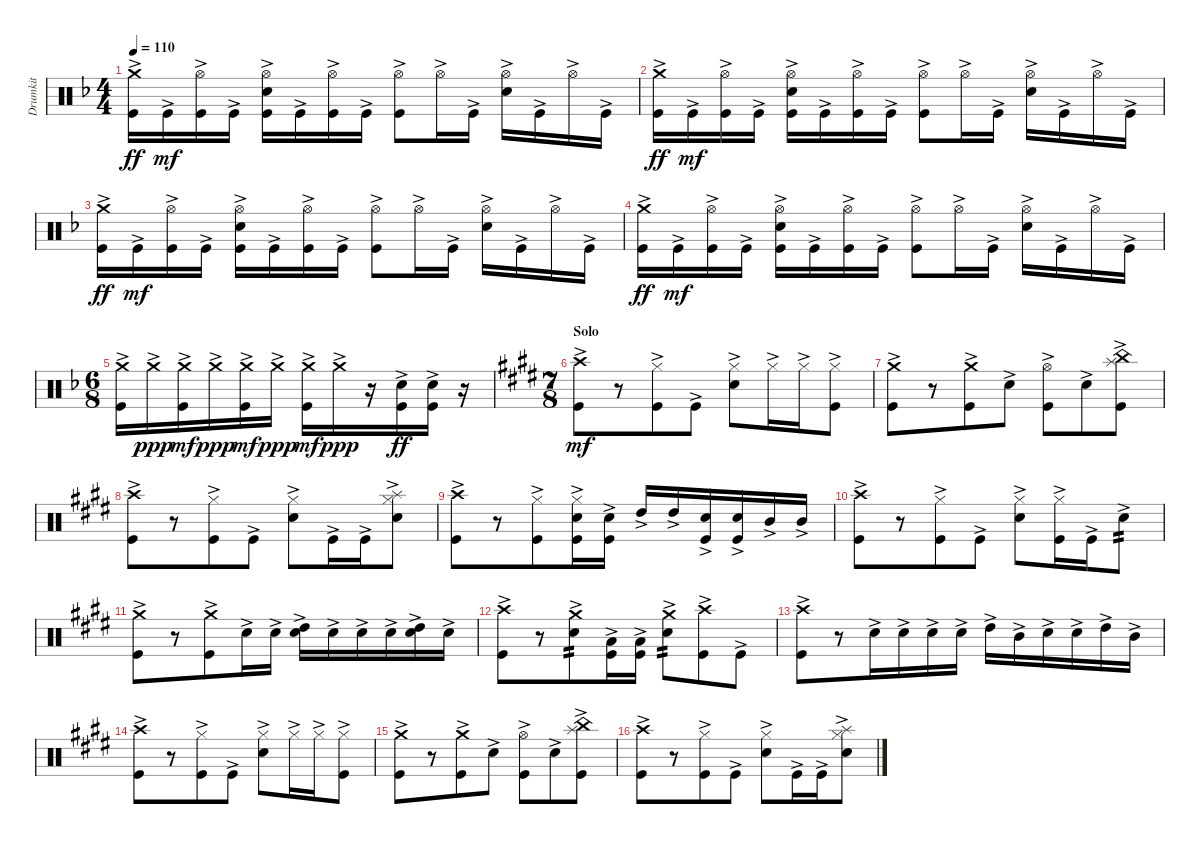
\track ("Drumkit" "Drumkit") {instrument percussion}
\staff {score}
\articulation defaults
\ts (4 4)
\tempo 110
\clef neutral
\ks dminor
("Crash medium (hit)"{ac} "Kick (hit)"{ac}).16{dy ff} "Kick (hit)"{ac}.16{dy mf} ("Hi-Hat (open)"{ac} "Kick (hit)"{ac}).16 "Kick (hit)"{ac}.16 ("Hi-Hat (open)"{ac} "Snare (hit) 2"{ac} "Kick (hit)"{ac}).16 "Kick (hit)"{ac}.16 ("Hi-Hat (open)"{ac} "Kick (hit)"{ac}).16 "Kick (hit)"{ac}.16 ("Hi-Hat (open)"{ac} "Kick (hit)"{ac}).8 "Hi-Hat (open)"{ac}.16 "Kick (hit)"{ac}.16 ("Hi-Hat (open)"{ac} "Snare (hit) 2"{ac}).16 "Kick (hit)"{ac}.16 "Hi-Hat (open)"{ac}.16 "Kick (hit)"{ac}.16 |
("Crash medium (hit)"{ac} "Kick (hit)"{ac}).16{dy ff} "Kick (hit)"{ac}.16{dy mf} ("Hi-Hat (open)"{ac} "Kick (hit)"{ac}).16 "Kick (hit)"{ac}.16 ("Hi-Hat (open)"{ac} "Snare (hit) 2"{ac} "Kick (hit)"{ac}).16 "Kick (hit)"{ac}.16 ("Hi-Hat (open)"{ac} "Kick (hit)"{ac}).16 "Kick (hit)"{ac}.16 ("Hi-Hat (open)"{ac} "Kick (hit)"{ac}).8 "Hi-Hat (open)"{ac}.16 "Kick (hit)"{ac}.16 ("Hi-Hat (open)"{ac} "Snare (hit) 2"{ac}).16 "Kick (hit)"{ac}.16 "Hi-Hat (open)"{ac}.16 "Kick (hit)"{ac}.16 |
("Crash medium (hit)"{ac} "Kick (hit)"{ac}).16{dy ff} "Kick (hit)"{ac}.16{dy mf} ("Hi-Hat (open)"{ac} "Kick (hit)"{ac}).16 "Kick (hit)"{ac}.16 ("Hi-Hat (open)"{ac} "Snare (hit) 2"{ac} "Kick (hit)"{ac}).16 "Kick (hit)"{ac}.16 ("Hi-Hat (open)"{ac} "Kick (hit)"{ac}).16 "Kick (hit)"{ac}.16 ("Hi-Hat (open)"{ac} "Kick (hit)"{ac}).8 "Hi-Hat (open)"{ac}.16 "Kick (hit)"{ac}.16 ("Hi-Hat (open)"{ac} "Snare (hit) 2"{ac}).16 "Kick (hit)"{ac}.16 "Hi-Hat (open)"{ac}.16 "Kick (hit)"{ac}.16 |
("Crash medium (hit)"{ac} "Kick (hit)"{ac}).16{dy ff} "Kick (hit)"{ac}.16{dy mf} ("Hi-Hat (open)"{ac} "Kick (hit)"{ac}).16 "Kick (hit)"{ac}.16 ("Hi-Hat (open)"{ac} "Snare (hit) 2"{ac} "Kick (hit)"{ac}).16 "Kick (hit)"{ac}.16 ("Hi-Hat (open)"{ac} "Kick (hit)"{ac}).16 "Kick (hit)"{ac}.16 ("Hi-Hat (open)"{ac} "Kick (hit)"{ac}).8 "Hi-Hat (open)"{ac}.16 "Kick (hit)"{ac}.16 ("Hi-Hat (open)"{ac} "Snare (hit) 2"{ac}).16 "Kick (hit)"{ac}.16 "Hi-Hat (open)"{ac}.16 "Kick (hit)"{ac}.16 |
\ts (6 8)
("Crash medium (hit)"{ac} "Kick (hit)"{ac}).16 "Crash medium (hit)"{ac}.16{dy ppp} ("Crash medium (hit)"{ac} "Kick (hit)"{ac}).16{dy mf} "Crash medium (hit)"{ac}.16{dy ppp} ("Crash medium (hit)"{ac} "Kick (hit)"{ac}).16{dy mf} "Crash medium (hit)"{ac}.16{dy ppp} ("Crash medium (hit)"{ac} "Kick (hit)"{ac}).16{dy mf} "Crash medium (hit)"{ac}.16{dy ppp} r.16 ("Snare (hit) 2"{ac} "Kick (hit)"{ac}).16{dy ff} ("Snare (hit) 2"{ac} "Kick (hit)"{ac}).16 r.16 |
\ts (7 8)
\section ("" "Solo")
\ks c#minor
("Crash high (hit)"{ac} "Kick (hit)"{ac}).8{dy mf} r.8 ("Hi-Hat (closed)"{ac} "Kick (hit)"{ac}).8 "Kick (hit)"{ac}.8 ("Hi-Hat (closed)"{ac} "Snare (hit) 2"{ac}).8 "Hi-Hat (closed)"{ac}.16 "Hi-Hat (closed)"{ac}.16 ("Hi-Hat (closed)"{ac} "Kick (hit)"{ac}).8 |
("Crash medium (hit)"{ac} "Kick (hit)"{ac}).8 r.8 ("Crash medium (hit)"{ac} "Kick (hit)"{ac}).8 "Snare (hit) 2"{ac}.8 ("Hi-Hat (open)"{ac} "Kick (hit)"{ac}).8 "Snare (hit) 2"{ac}.8 ("China (hit)"{ac} "Splash (hit)"{ac} "Kick (hit)"{ac}).8 |
("Crash high (hit)"{ac} "Kick (hit)"{ac}).8 r.8 ("Hi-Hat (closed)"{ac} "Kick (hit)"{ac}).8 "Kick (hit)"{ac}.8 ("Hi-Hat (closed)"{ac} "Snare (hit) 2"{ac}).8 "Kick (hit)"{ac}.16 "Kick (hit)"{ac}.16 ("Splash (hit)"{ac} "Hi-Hat (closed)"{ac} "Snare (hit) 2"{ac}).8 |
("Crash high (hit)"{ac} "Kick (hit)"{ac}).8 r.8 ("Hi-Hat (closed)"{ac} "Kick (hit)"{ac}).8 ("Hi-Hat (closed)"{ac} "Snare (hit) 2"{ac} "Kick (hit)"{ac}).16 ("Snare (hit) 2"{ac} "Kick (hit)"{ac}).16 "High Tom (hit)"{ac}.16 "High Tom (hit)"{ac}.16 ("Snare (hit) 2"{ac} "Kick (hit)"{ac}).16 ("Snare (hit) 2"{ac} "Kick (hit)"{ac}).16 "Mid Tom (hit)"{ac}.16 "Mid Tom (hit)"{ac}.16 |
("Crash high (hit)"{ac} "Kick (hit)"{ac}).8 r.8 ("Hi-Hat (closed)"{ac} "Kick (hit)"{ac}).8 "Kick (hit)"{ac}.8 ("Hi-Hat (closed)"{ac} "Snare (hit) 2"{ac}).8 ("Hi-Hat (closed)"{ac} "Kick (hit)"{ac}).16 "Kick (hit)"{ac}.16 "Snare (hit) 2"{ac}.8{tp 2} |
("Crash medium (hit)"{ac} "Kick (hit)"{ac}).8 r.8 ("Crash medium (hit)"{ac} "Kick (hit)"{ac}).8 "Snare (hit) 2"{ac}.16 "Snare (hit) 2"{ac}.16 ("High Tom (hit)"{ac} "Snare (hit) 2"{ac}).16 "Snare (hit) 2"{ac}.16 "Snare (hit) 2"{ac}.16 "Snare (hit) 2"{ac}.16 ("High Tom (hit)"{ac} "Snare (hit) 2"{ac}).16 "Snare (hit) 2"{ac}.16 |
("Crash high (hit)"{ac} "Kick (hit)"{ac}).8 r.8 ("Crash medium (hit)"{ac} "Snare (hit) 2"{ac}).8{tp 2} ("Low Floor Tom (hit)"{ac} "Kick (hit)"{ac}).16 ("Low Floor Tom (hit)"{ac} "Kick (hit)"{ac}).16 ("Crash medium (hit)"{ac} "Snare (hit) 2"{ac}).8{tp 2} ("Crash high (hit)"{ac} "Kick (hit)"{ac}).8 "Kick (hit)"{ac}.8 |
("Crash high (hit)"{ac} "Kick (hit)"{ac}).8 r.8 "Snare (hit) 2"{ac}.16 "Snare (hit) 2"{ac}.16 "Snare (hit) 2"{ac}.16 "Snare (hit) 2"{ac}.16 "High Tom (hit)"{ac}.16 "Mid Tom (hit)"{ac}.16 "Snare (hit) 2"{ac}.16 "Snare (hit) 2"{ac}.16 "High Tom (hit)"{ac}.16 "Mid Tom (hit)"{ac}.16 |
("Crash high (hit)"{ac} "Kick (hit)"{ac}).8 r.8 ("Hi-Hat (closed)"{ac} "Kick (hit)"{ac}).8 "Kick (hit)"{ac}.8 ("Hi-Hat (closed)"{ac} "Snare (hit) 2"{ac}).8 "Hi-Hat (closed)"{ac}.16 "Hi-Hat (closed)"{ac}.16 ("Hi-Hat (closed)"{ac} "Kick (hit)"{ac}).8 |
("Crash medium (hit)"{ac} "Kick (hit)"{ac}).8 r.8 ("Crash medium (hit)"{ac} "Kick (hit)"{ac}).8 "Snare (hit) 2"{ac}.8 ("Hi-Hat (open)"{ac} "Kick (hit)"{ac}).8 "Snare (hit) 2"{ac}.8 ("China (hit)"{ac} "Splash (hit)"{ac} "Kick (hit)"{ac}).8 |
("Crash high (hit)"{ac} "Kick (hit)"{ac}).8 r.8 ("Hi-Hat (closed)"{ac} "Kick (hit)"{ac}).8 "Kick (hit)"{ac}.8 ("Hi-Hat (closed)"{ac} "Snare (hit) 2"{ac}).8 "Kick (hit)"{ac}.16 "Kick (hit)"{ac}.16 ("Splash (hit)"{ac} "Hi-Hat (closed)"{ac} "Snare (hit) 2"{ac}).8
